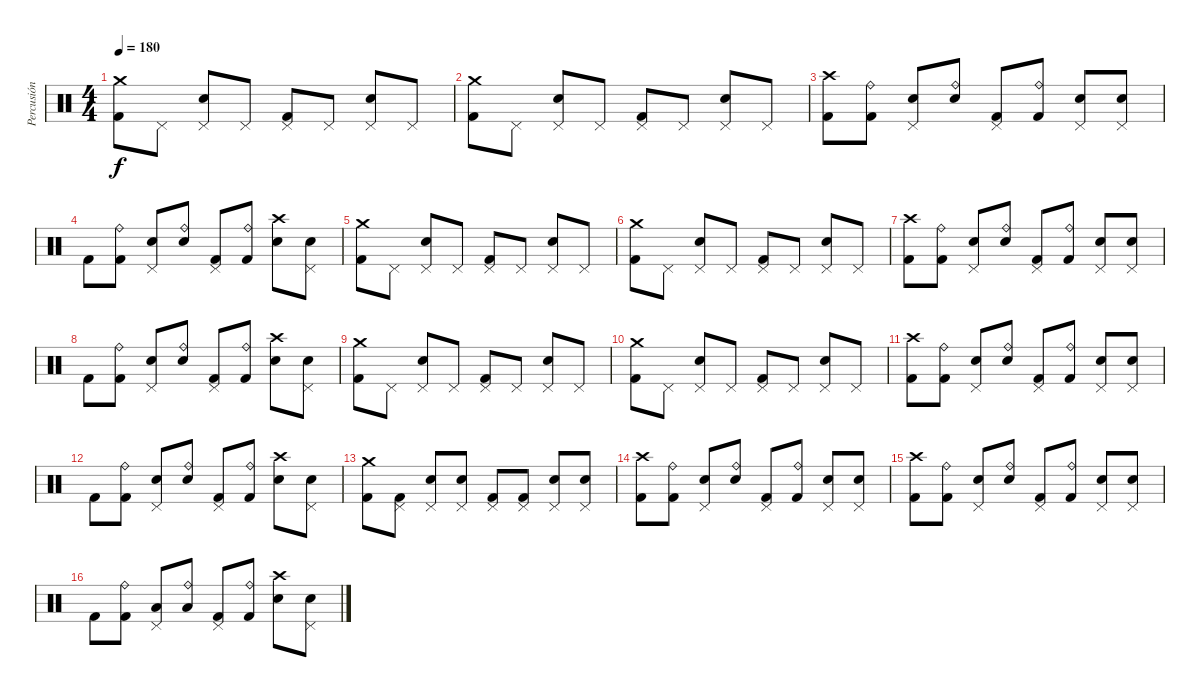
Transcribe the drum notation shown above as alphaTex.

\track ("Percusión" "Percusión") {instrument percussion}
\staff {score}
\articulation defaults
\ts (4 4)
\tempo 180
\clef neutral
\ks c
("Crash medium (hit)" "Kick (hit) 2").8{dy f} "Pedal Hi-Hat (hit)".8 ("Pedal Hi-Hat (hit)" "Snare (hit) 2").8 "Pedal Hi-Hat (hit)".8 ("Pedal Hi-Hat (hit)" "Kick (hit) 2").8 "Pedal Hi-Hat (hit)".8 ("Pedal Hi-Hat (hit)" "Snare (hit) 2").8 "Pedal Hi-Hat (hit)".8 |
("Crash medium (hit)" "Kick (hit) 2").8 "Pedal Hi-Hat (hit)".8 ("Pedal Hi-Hat (hit)" "Snare (hit) 2").8 "Pedal Hi-Hat (hit)".8 ("Pedal Hi-Hat (hit)" "Kick (hit) 2").8 "Pedal Hi-Hat (hit)".8 ("Pedal Hi-Hat (hit)" "Snare (hit) 2").8 "Pedal Hi-Hat (hit)".8 |
("Crash high (hit)" "Kick (hit) 2").8 ("Ride (bell)" "Kick (hit) 2").8 ("Pedal Hi-Hat (hit)" "Snare (hit) 2").8 ("Ride (bell)" "Snare (hit) 2").8 ("Pedal Hi-Hat (hit)" "Kick (hit) 2").8 ("Ride (bell)" "Kick (hit) 2").8 ("Pedal Hi-Hat (hit)" "Snare (hit) 2").8 ("Pedal Hi-Hat (hit)" "Snare (hit) 2").8 |
"Kick (hit) 2".8 ("Ride (bell)" "Kick (hit) 2").8 ("Pedal Hi-Hat (hit)" "Snare (hit) 2").8 ("Ride (bell)" "Snare (hit) 2").8 ("Pedal Hi-Hat (hit)" "Kick (hit) 2").8 ("Ride (bell)" "Kick (hit) 2").8 ("Crash high (hit)" "Snare (hit) 2").8 ("Pedal Hi-Hat (hit)" "Snare (hit) 2").8 |
("Crash medium (hit)" "Kick (hit) 2").8 "Pedal Hi-Hat (hit)".8 ("Pedal Hi-Hat (hit)" "Snare (hit) 2").8 "Pedal Hi-Hat (hit)".8 ("Pedal Hi-Hat (hit)" "Kick (hit) 2").8 "Pedal Hi-Hat (hit)".8 ("Pedal Hi-Hat (hit)" "Snare (hit) 2").8 "Pedal Hi-Hat (hit)".8 |
("Crash medium (hit)" "Kick (hit) 2").8 "Pedal Hi-Hat (hit)".8 ("Pedal Hi-Hat (hit)" "Snare (hit) 2").8 "Pedal Hi-Hat (hit)".8 ("Pedal Hi-Hat (hit)" "Kick (hit) 2").8 "Pedal Hi-Hat (hit)".8 ("Pedal Hi-Hat (hit)" "Snare (hit) 2").8 "Pedal Hi-Hat (hit)".8 |
("Crash high (hit)" "Kick (hit) 2").8 ("Ride (bell)" "Kick (hit) 2").8 ("Pedal Hi-Hat (hit)" "Snare (hit) 2").8 ("Ride (bell)" "Snare (hit) 2").8 ("Pedal Hi-Hat (hit)" "Kick (hit) 2").8 ("Ride (bell)" "Kick (hit) 2").8 ("Pedal Hi-Hat (hit)" "Snare (hit) 2").8 ("Pedal Hi-Hat (hit)" "Snare (hit) 2").8 |
"Kick (hit) 2".8 ("Ride (bell)" "Kick (hit) 2").8 ("Pedal Hi-Hat (hit)" "Snare (hit) 2").8 ("Ride (bell)" "Snare (hit) 2").8 ("Pedal Hi-Hat (hit)" "Kick (hit) 2").8 ("Ride (bell)" "Kick (hit) 2").8 ("Crash high (hit)" "Snare (hit) 2").8 ("Pedal Hi-Hat (hit)" "Snare (hit) 2").8 |
("Crash medium (hit)" "Kick (hit) 2").8 "Pedal Hi-Hat (hit)".8 ("Pedal Hi-Hat (hit)" "Snare (hit) 2").8 "Pedal Hi-Hat (hit)".8 ("Pedal Hi-Hat (hit)" "Kick (hit) 2").8 "Pedal Hi-Hat (hit)".8 ("Pedal Hi-Hat (hit)" "Snare (hit) 2").8 "Pedal Hi-Hat (hit)".8 |
("Crash medium (hit)" "Kick (hit) 2").8 "Pedal Hi-Hat (hit)".8 ("Pedal Hi-Hat (hit)" "Snare (hit) 2").8 "Pedal Hi-Hat (hit)".8 ("Pedal Hi-Hat (hit)" "Kick (hit) 2").8 "Pedal Hi-Hat (hit)".8 ("Pedal Hi-Hat (hit)" "Snare (hit) 2").8 "Pedal Hi-Hat (hit)".8 |
("Crash high (hit)" "Kick (hit) 2").8 ("Ride (bell)" "Kick (hit) 2").8 ("Pedal Hi-Hat (hit)" "Snare (hit) 2").8 ("Ride (bell)" "Snare (hit) 2").8 ("Pedal Hi-Hat (hit)" "Kick (hit) 2").8 ("Ride (bell)" "Kick (hit) 2").8 ("Pedal Hi-Hat (hit)" "Snare (hit) 2").8 ("Pedal Hi-Hat (hit)" "Snare (hit) 2").8 |
"Kick (hit) 2".8 ("Ride (bell)" "Kick (hit) 2").8 ("Pedal Hi-Hat (hit)" "Snare (hit) 2").8 ("Ride (bell)" "Snare (hit) 2").8 ("Pedal Hi-Hat (hit)" "Kick (hit) 2").8 ("Ride (bell)" "Kick (hit) 2").8 ("Crash high (hit)" "Snare (hit) 2").8 ("Pedal Hi-Hat (hit)" "Snare (hit) 2").8 |
("Crash medium (hit)" "Kick (hit) 2").8 ("Pedal Hi-Hat (hit)" "Kick (hit) 2").8 ("Pedal Hi-Hat (hit)" "Snare (hit) 2").8 ("Pedal Hi-Hat (hit)" "Snare (hit) 2").8 ("Pedal Hi-Hat (hit)" "Kick (hit) 2").8 ("Pedal Hi-Hat (hit)" "Kick (hit) 2").8 ("Pedal Hi-Hat (hit)" "Snare (hit) 2").8 ("Pedal Hi-Hat (hit)" "Snare (hit) 2").8 |
("Crash high (hit)" "Kick (hit) 2").8 ("Ride (bell)" "Kick (hit) 2").8 ("Pedal Hi-Hat (hit)" "Snare (hit) 2").8 ("Ride (bell)" "Snare (hit) 2").8 ("Pedal Hi-Hat (hit)" "Kick (hit) 2").8 ("Ride (bell)" "Kick (hit) 2").8 ("Pedal Hi-Hat (hit)" "Snare (hit) 2").8 ("Pedal Hi-Hat (hit)" "Snare (hit) 2").8 |
("Crash high (hit)" "Kick (hit) 2").8 ("Ride (bell)" "Kick (hit) 2").8 ("Pedal Hi-Hat (hit)" "Snare (hit) 2").8 ("Ride (bell)" "Snare (hit) 2").8 ("Pedal Hi-Hat (hit)" "Kick (hit) 2").8 ("Ride (bell)" "Kick (hit) 2").8 ("Pedal Hi-Hat (hit)" "Snare (hit) 2").8 ("Pedal Hi-Hat (hit)" "Snare (hit) 2").8 |
"Kick (hit) 2".8 ("Ride (bell)" "Kick (hit) 2").8 ("Pedal Hi-Hat (hit)" "Low Floor Tom (hit)").8 ("Ride (bell)" "Low Floor Tom (hit)").8 ("Pedal Hi-Hat (hit)" "Kick (hit) 2").8 ("Ride (bell)" "Kick (hit) 2").8 ("Crash high (hit)" "Snare (hit) 2").8 ("Pedal Hi-Hat (hit)" "Snare (hit) 2").8
